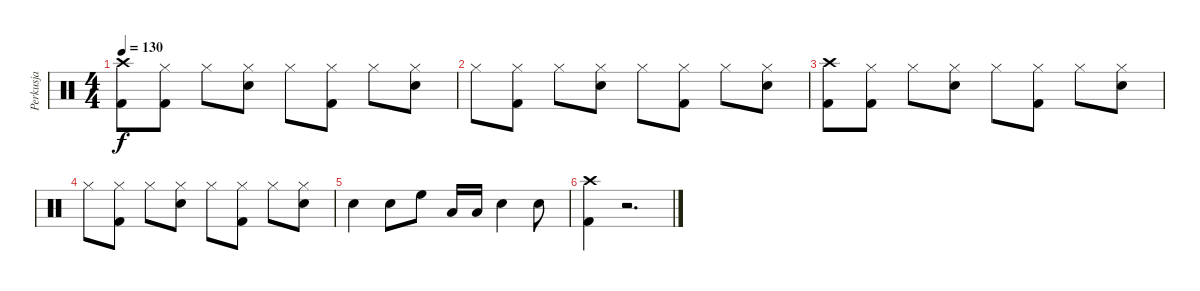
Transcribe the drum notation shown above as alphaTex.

\track ("Perkusja" "Perkusja") {instrument percussion}
\staff {score}
\articulation defaults
\ts (4 4)
\tempo 130
\clef neutral
\ks c
("Crash high (hit)" "Kick (hit) 2").8{dy f} ("Hi-Hat (closed)" "Kick (hit) 2").8 "Hi-Hat (closed)".8 ("Hi-Hat (closed)" "Snare (hit) 2").8 "Hi-Hat (closed)".8 ("Hi-Hat (closed)" "Kick (hit) 2").8 "Hi-Hat (closed)".8 ("Hi-Hat (closed)" "Snare (hit) 2").8 |
"Hi-Hat (closed)".8 ("Hi-Hat (closed)" "Kick (hit) 2").8 "Hi-Hat (closed)".8 ("Hi-Hat (closed)" "Snare (hit) 2").8 "Hi-Hat (closed)".8 ("Hi-Hat (closed)" "Kick (hit) 2").8 "Hi-Hat (closed)".8 ("Hi-Hat (closed)" "Snare (hit) 2").8 |
("Crash high (hit)" "Kick (hit) 2").8 ("Hi-Hat (closed)" "Kick (hit) 2").8 "Hi-Hat (closed)".8 ("Hi-Hat (closed)" "Snare (hit) 2").8 "Hi-Hat (closed)".8 ("Hi-Hat (closed)" "Kick (hit) 2").8 "Hi-Hat (closed)".8 ("Hi-Hat (closed)" "Snare (hit) 2").8 |
"Hi-Hat (closed)".8 ("Hi-Hat (closed)" "Kick (hit) 2").8 "Hi-Hat (closed)".8 ("Hi-Hat (closed)" "Snare (hit) 2").8 "Hi-Hat (closed)".8 ("Hi-Hat (closed)" "Kick (hit) 2").8 "Hi-Hat (closed)".8 ("Hi-Hat (closed)" "Snare (hit) 2").8 |
"Snare (hit) 2".4 "Snare (hit) 2".8 "High Floor Tom (hit)".8 "Low Tom (hit)".16 "Low Tom (hit)".16 "Snare (hit) 2".4 "Snare (hit) 2".8 |
("Kick (hit) 2" "Crash high (hit)").4 r.2{d}
